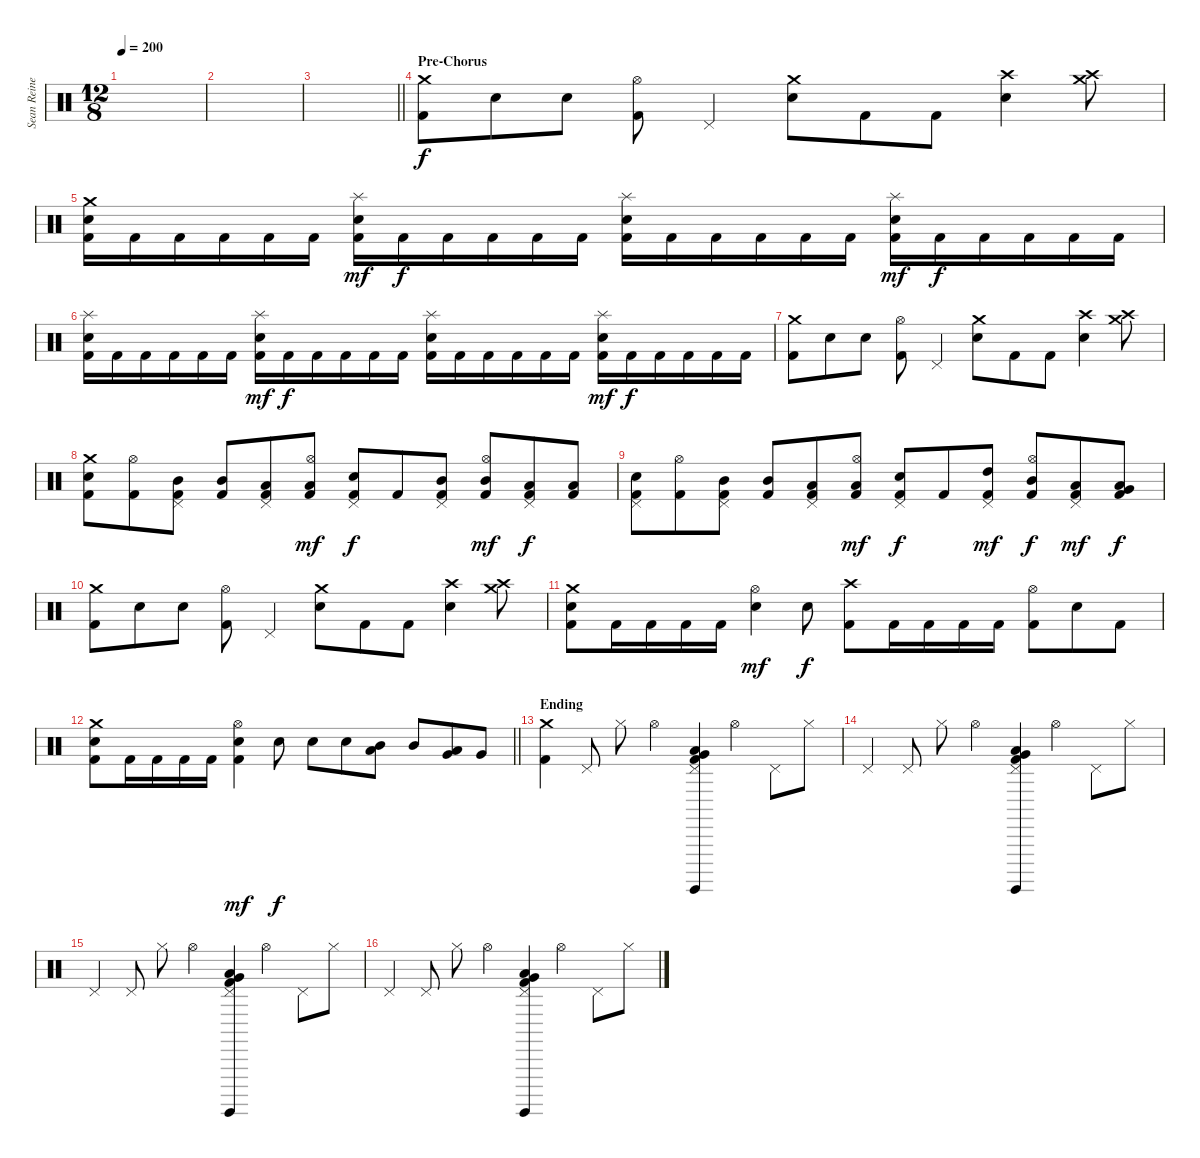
\track ("Sean Reinert" "Sean Reine") {instrument percussion}
\staff {score}
\articulation defaults
\ts (12 8)
\tempo 200
\clef neutral
\ks c
|
|
\barLineRight lightlight
|
\section ("" "Pre-Chorus")
("Crash medium (hit)" "Kick (hit) 2").8 "Snare (hit) 2".8 "Snare (hit) 2".8 ("Hi-Hat (open)" "Kick (hit) 2").8 "Pedal Hi-Hat (hit)".4 ("Crash medium (hit)" "Snare (hit) 2").8 "Kick (hit) 2".8 "Kick (hit) 2".8 ("Crash high (hit)" "Snare (hit) 2").4 ("Crash high (hit)" "Crash medium (hit)").8 |
("Crash medium (hit)" "Snare (hit) 2" "Kick (hit) 2").16 "Kick (hit) 2".16 "Kick (hit) 2".16 "Kick (hit) 2".16 "Kick (hit) 2".16 "Kick (hit) 2".16 ("Splash (hit)" "Snare (hit) 2" "Kick (hit) 2").16{dy mf} "Kick (hit) 2".16{dy f} "Kick (hit) 2".16 "Kick (hit) 2".16 "Kick (hit) 2".16 "Kick (hit) 2".16 ("Splash (hit)" "Snare (hit) 2" "Kick (hit) 2").16 "Kick (hit) 2".16 "Kick (hit) 2".16 "Kick (hit) 2".16 "Kick (hit) 2".16 "Kick (hit) 2".16 ("Splash (hit)" "Snare (hit) 2" "Kick (hit) 2").16{dy mf} "Kick (hit) 2".16{dy f} "Kick (hit) 2".16 "Kick (hit) 2".16 "Kick (hit) 2".16 "Kick (hit) 2".16 |
("Splash (hit)" "Snare (hit) 2" "Kick (hit) 2").16 "Kick (hit) 2".16 "Kick (hit) 2".16 "Kick (hit) 2".16 "Kick (hit) 2".16 "Kick (hit) 2".16 ("Splash (hit)" "Snare (hit) 2" "Kick (hit) 2").16{dy mf} "Kick (hit) 2".16{dy f} "Kick (hit) 2".16 "Kick (hit) 2".16 "Kick (hit) 2".16 "Kick (hit) 2".16 ("Splash (hit)" "Snare (hit) 2" "Kick (hit) 2").16 "Kick (hit) 2".16 "Kick (hit) 2".16 "Kick (hit) 2".16 "Kick (hit) 2".16 "Kick (hit) 2".16 ("Splash (hit)" "Snare (hit) 2" "Kick (hit) 2").16{dy mf} "Kick (hit) 2".16{dy f} "Kick (hit) 2".16 "Kick (hit) 2".16 "Kick (hit) 2".16 "Kick (hit) 2".16 |
("Crash medium (hit)" "Kick (hit) 2").8 "Snare (hit) 2".8 "Snare (hit) 2".8 ("Hi-Hat (open)" "Kick (hit) 2").8 "Pedal Hi-Hat (hit)".4 ("Crash medium (hit)" "Snare (hit) 2").8 "Kick (hit) 2".8 "Kick (hit) 2".8 ("Crash high (hit)" "Snare (hit) 2").4 ("Crash high (hit)" "Crash medium (hit)").8 |
("Crash medium (hit)" "Snare (hit) 2" "Kick (hit) 2").8 ("Hi-Hat (open)" "Kick (hit) 2").8 ("Pedal Hi-Hat (hit)" "Mid Tom (hit)" "Kick (hit) 2").8 ("Mid Tom (hit)" "Kick (hit) 2").8 ("Pedal Hi-Hat (hit)" "Low Tom (hit)" "Kick (hit) 2").8 ("Hi-Hat (open)" "Low Tom (hit)" "Kick (hit) 2").8{dy mf} ("Pedal Hi-Hat (hit)" "Snare (hit) 2" "Kick (hit) 2").8{dy f} "Kick (hit) 2".8 ("Pedal Hi-Hat (hit)" "Mid Tom (hit)" "Kick (hit) 2").8 ("Hi-Hat (open)" "Mid Tom (hit)" "Kick (hit) 2").8{dy mf} ("Pedal Hi-Hat (hit)" "Low Tom (hit)" "Kick (hit) 2").8{dy f} ("Low Tom (hit)" "Kick (hit) 2").8 |
("Pedal Hi-Hat (hit)" "Snare (hit) 2" "Kick (hit) 2").8 ("Hi-Hat (open)" "Kick (hit) 2").8 ("Pedal Hi-Hat (hit)" "Mid Tom (hit)" "Kick (hit) 2").8 ("Mid Tom (hit)" "Kick (hit) 2").8 ("Pedal Hi-Hat (hit)" "Low Tom (hit)" "Kick (hit) 2").8 ("Hi-Hat (open)" "Low Tom (hit)" "Kick (hit) 2").8{dy mf} ("Pedal Hi-Hat (hit)" "Snare (hit) 2" "Kick (hit) 2").8{dy f} "Kick (hit) 2".8 ("Pedal Hi-Hat (hit)" "High Tom (hit)" "Kick (hit) 2").8{dy mf} ("Hi-Hat (open)" "Mid Tom (hit)" "Kick (hit) 2").8{dy f} ("Pedal Hi-Hat (hit)" "Low Tom (hit)" "Kick (hit) 2").8{dy mf} ("Very Low Tom (hit)" "Low Floor Tom (hit)" "Kick (hit) 2").8{dy f} |
("Crash medium (hit)" "Kick (hit) 2").8 "Snare (hit) 2".8 "Snare (hit) 2".8 ("Hi-Hat (open)" "Kick (hit) 2").8 "Pedal Hi-Hat (hit)".4 ("Crash medium (hit)" "Snare (hit) 2").8 "Kick (hit) 2".8 "Kick (hit) 2".8 ("Crash high (hit)" "Snare (hit) 2").4 ("Crash high (hit)" "Crash medium (hit)").8 |
("Crash medium (hit)" "Snare (hit) 2" "Kick (hit) 2").8 "Kick (hit) 2".16 "Kick (hit) 2".16 "Kick (hit) 2".16 "Kick (hit) 2".16 ("Hi-Hat (open)" "Snare (hit) 2").4{dy mf} "Snare (hit) 2".8{dy f} ("Crash high (hit)" "Kick (hit) 2").8 "Kick (hit) 2".16 "Kick (hit) 2".16 "Kick (hit) 2".16 "Kick (hit) 2".16 ("Hi-Hat (open)" "Kick (hit) 2").8 "Snare (hit) 2".8 "Kick (hit) 2".8 |
\barLineRight lightlight
("Crash medium (hit)" "Snare (hit) 2" "Kick (hit) 2").8 "Kick (hit) 2".16 "Kick (hit) 2".16 "Kick (hit) 2".16 "Kick (hit) 2".16 ("Hi-Hat (open)" "Snare (hit) 2" "Kick (hit) 2").4{dy mf} "Snare (hit) 2".8{dy f} "Snare (hit) 2".8 "Snare (hit) 2".8 ("Low Tom (hit)" "Mid Tom (hit)").8 "Mid Tom (hit)".8 ("Very Low Tom (hit)" "Low Tom (hit)").8 "Very Low Tom (hit)".8 |
\section ("" "Ending")
("Crash medium (hit)" "Kick (hit) 2").4 "Pedal Hi-Hat (hit)".8 "Hi-Hat (closed)".8 "Hi-Hat (open)".4 ("Pedal Hi-Hat (hit)" "Low Floor Tom (hit)" "Very Low Tom (hit)" "Surdo (hit)" "Kick (hit) 2").4 "Hi-Hat (open)".4 "Pedal Hi-Hat (hit)".8 "Hi-Hat (closed)".8 |
"Pedal Hi-Hat (hit)".4 "Pedal Hi-Hat (hit)".8 "Hi-Hat (closed)".8 "Hi-Hat (open)".4 ("Pedal Hi-Hat (hit)" "Low Floor Tom (hit)" "Very Low Tom (hit)" "Surdo (hit)" "Kick (hit) 2").4 "Hi-Hat (open)".4 "Pedal Hi-Hat (hit)".8 "Hi-Hat (closed)".8 |
"Pedal Hi-Hat (hit)".4 "Pedal Hi-Hat (hit)".8 "Hi-Hat (closed)".8 "Hi-Hat (open)".4 ("Pedal Hi-Hat (hit)" "Low Floor Tom (hit)" "Very Low Tom (hit)" "Surdo (hit)" "Kick (hit) 2").4 "Hi-Hat (open)".4 "Pedal Hi-Hat (hit)".8 "Hi-Hat (closed)".8 |
"Pedal Hi-Hat (hit)".4 "Pedal Hi-Hat (hit)".8 "Hi-Hat (closed)".8 "Hi-Hat (open)".4 ("Pedal Hi-Hat (hit)" "Low Floor Tom (hit)" "Very Low Tom (hit)" "Surdo (hit)" "Kick (hit) 2").4 "Hi-Hat (open)".4 "Pedal Hi-Hat (hit)".8 "Hi-Hat (closed)".8
